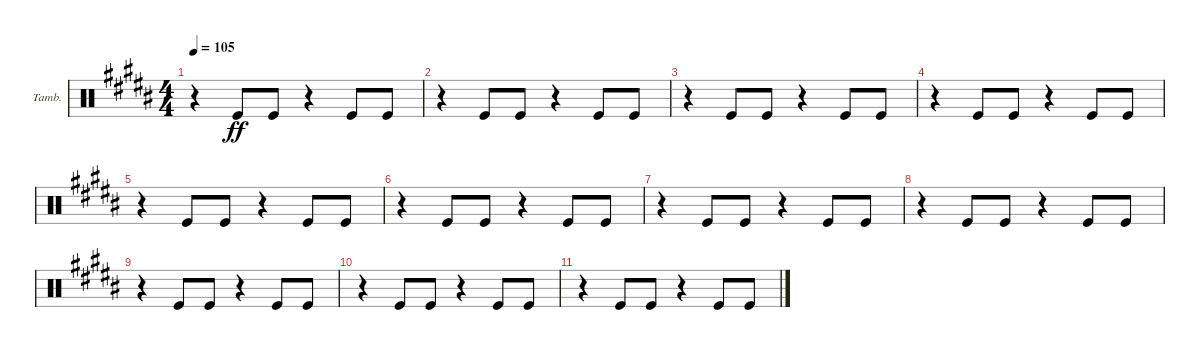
\defaultSystemsLayout 4
\bracketExtendMode groupsimilarinstruments
\firstSystemTrackNameOrientation horizontal
\otherSystemsTrackNameOrientation horizontal
\track ("Tambourine" "Tamb.") {instrument percussion}
\staff {score}
\articulation defaults
\ts (4 4)
\tempo 105
\clef neutral
\ks b
r.4{dy ff} "Kick (hit)".8 "Kick (hit)".8 r.4 "Kick (hit)".8 "Kick (hit)".8 |
r.4 "Kick (hit)".8 "Kick (hit)".8 r.4 "Kick (hit)".8 "Kick (hit)".8 |
r.4 "Kick (hit)".8 "Kick (hit)".8 r.4 "Kick (hit)".8 "Kick (hit)".8 |
r.4 "Kick (hit)".8 "Kick (hit)".8 r.4 "Kick (hit)".8 "Kick (hit)".8 |
r.4 "Kick (hit)".8 "Kick (hit)".8 r.4 "Kick (hit)".8 "Kick (hit)".8 |
r.4 "Kick (hit)".8 "Kick (hit)".8 r.4 "Kick (hit)".8 "Kick (hit)".8 |
r.4 "Kick (hit)".8 "Kick (hit)".8 r.4 "Kick (hit)".8 "Kick (hit)".8 |
r.4 "Kick (hit)".8 "Kick (hit)".8 r.4 "Kick (hit)".8 "Kick (hit)".8 |
r.4 "Kick (hit)".8 "Kick (hit)".8 r.4 "Kick (hit)".8 "Kick (hit)".8 |
r.4 "Kick (hit)".8 "Kick (hit)".8 r.4 "Kick (hit)".8 "Kick (hit)".8 |
r.4 "Kick (hit)".8 "Kick (hit)".8 r.4 "Kick (hit)".8 "Kick (hit)".8
